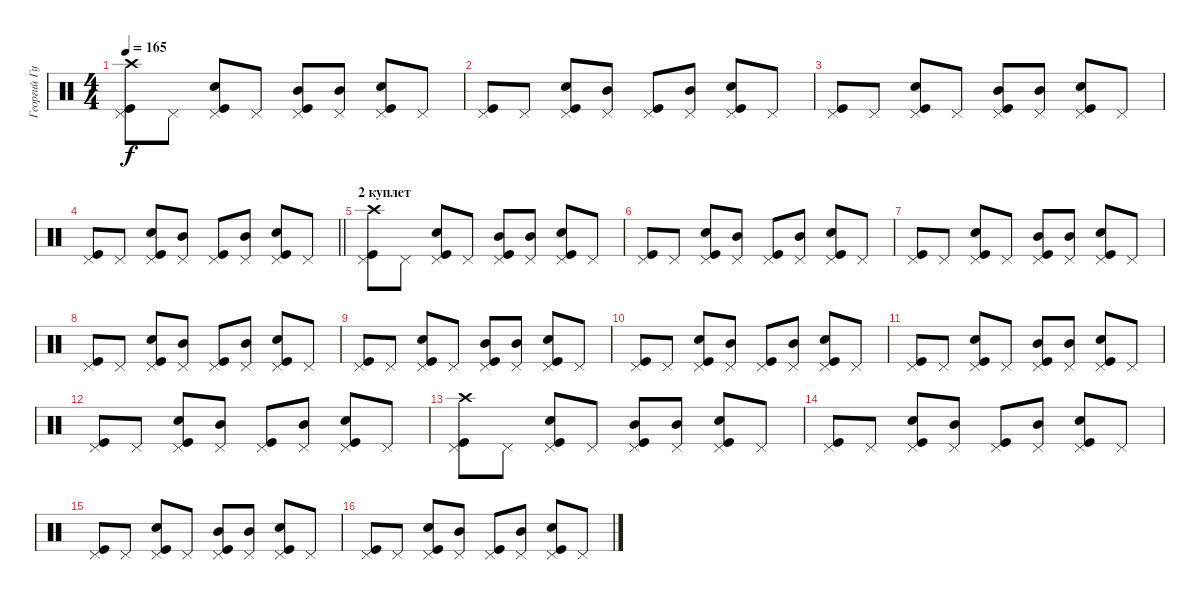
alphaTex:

\track ("Георгий Гурьянов" "Георгий Гу") {instrument percussion}
\staff {score}
\articulation defaults
\ts (4 4)
\tempo 165
\clef neutral
\ks c
("Pedal Hi-Hat (hit)" "Kick (hit)" "Crash high (hit)").8{dy f} "Pedal Hi-Hat (hit)".8 ("Pedal Hi-Hat (hit)" "Kick (hit)" "Snare (hit) 2").8 "Pedal Hi-Hat (hit)".8 ("Pedal Hi-Hat (hit)" "Kick (hit)" "Mid Tom (hit)").8 ("Pedal Hi-Hat (hit)" "Mid Tom (hit)").8 ("Pedal Hi-Hat (hit)" "Kick (hit)" "Snare (hit) 2").8 "Pedal Hi-Hat (hit)".8 |
("Pedal Hi-Hat (hit)" "Kick (hit)").8 "Pedal Hi-Hat (hit)".8 ("Pedal Hi-Hat (hit)" "Kick (hit)" "Snare (hit) 2").8 ("Pedal Hi-Hat (hit)" "Mid Tom (hit)").8 ("Pedal Hi-Hat (hit)" "Kick (hit)").8 ("Pedal Hi-Hat (hit)" "Mid Tom (hit)").8 ("Pedal Hi-Hat (hit)" "Kick (hit)" "Snare (hit) 2").8 "Pedal Hi-Hat (hit)".8 |
("Pedal Hi-Hat (hit)" "Kick (hit)").8 "Pedal Hi-Hat (hit)".8 ("Pedal Hi-Hat (hit)" "Kick (hit)" "Snare (hit) 2").8 "Pedal Hi-Hat (hit)".8 ("Pedal Hi-Hat (hit)" "Kick (hit)" "Mid Tom (hit)").8 ("Pedal Hi-Hat (hit)" "Mid Tom (hit)").8 ("Pedal Hi-Hat (hit)" "Kick (hit)" "Snare (hit) 2").8 "Pedal Hi-Hat (hit)".8 |
\barLineRight lightlight
("Pedal Hi-Hat (hit)" "Kick (hit)").8 "Pedal Hi-Hat (hit)".8 ("Pedal Hi-Hat (hit)" "Kick (hit)" "Snare (hit) 2").8 ("Pedal Hi-Hat (hit)" "Mid Tom (hit)").8 ("Pedal Hi-Hat (hit)" "Kick (hit)").8 ("Pedal Hi-Hat (hit)" "Mid Tom (hit)").8 ("Pedal Hi-Hat (hit)" "Kick (hit)" "Snare (hit) 2").8 "Pedal Hi-Hat (hit)".8 |
\section ("" "2 куплет")
("Pedal Hi-Hat (hit)" "Kick (hit)" "Crash high (hit)").8 "Pedal Hi-Hat (hit)".8 ("Pedal Hi-Hat (hit)" "Kick (hit)" "Snare (hit) 2").8 "Pedal Hi-Hat (hit)".8 ("Pedal Hi-Hat (hit)" "Kick (hit)" "Mid Tom (hit)").8 ("Pedal Hi-Hat (hit)" "Mid Tom (hit)").8 ("Pedal Hi-Hat (hit)" "Kick (hit)" "Snare (hit) 2").8 "Pedal Hi-Hat (hit)".8 |
("Pedal Hi-Hat (hit)" "Kick (hit)").8 "Pedal Hi-Hat (hit)".8 ("Pedal Hi-Hat (hit)" "Kick (hit)" "Snare (hit) 2").8 ("Pedal Hi-Hat (hit)" "Mid Tom (hit)").8 ("Pedal Hi-Hat (hit)" "Kick (hit)").8 ("Pedal Hi-Hat (hit)" "Mid Tom (hit)").8 ("Pedal Hi-Hat (hit)" "Kick (hit)" "Snare (hit) 2").8 "Pedal Hi-Hat (hit)".8 |
("Pedal Hi-Hat (hit)" "Kick (hit)").8 "Pedal Hi-Hat (hit)".8 ("Pedal Hi-Hat (hit)" "Kick (hit)" "Snare (hit) 2").8 "Pedal Hi-Hat (hit)".8 ("Pedal Hi-Hat (hit)" "Kick (hit)" "Mid Tom (hit)").8 ("Pedal Hi-Hat (hit)" "Mid Tom (hit)").8 ("Pedal Hi-Hat (hit)" "Kick (hit)" "Snare (hit) 2").8 "Pedal Hi-Hat (hit)".8 |
("Pedal Hi-Hat (hit)" "Kick (hit)").8 "Pedal Hi-Hat (hit)".8 ("Pedal Hi-Hat (hit)" "Kick (hit)" "Snare (hit) 2").8 ("Pedal Hi-Hat (hit)" "Mid Tom (hit)").8 ("Pedal Hi-Hat (hit)" "Kick (hit)").8 ("Pedal Hi-Hat (hit)" "Mid Tom (hit)").8 ("Pedal Hi-Hat (hit)" "Kick (hit)" "Snare (hit) 2").8 "Pedal Hi-Hat (hit)".8 |
("Pedal Hi-Hat (hit)" "Kick (hit)").8 "Pedal Hi-Hat (hit)".8 ("Pedal Hi-Hat (hit)" "Kick (hit)" "Snare (hit) 2").8 "Pedal Hi-Hat (hit)".8 ("Pedal Hi-Hat (hit)" "Kick (hit)" "Mid Tom (hit)").8 ("Pedal Hi-Hat (hit)" "Mid Tom (hit)").8 ("Pedal Hi-Hat (hit)" "Kick (hit)" "Snare (hit) 2").8 "Pedal Hi-Hat (hit)".8 |
("Pedal Hi-Hat (hit)" "Kick (hit)").8 "Pedal Hi-Hat (hit)".8 ("Pedal Hi-Hat (hit)" "Kick (hit)" "Snare (hit) 2").8 ("Pedal Hi-Hat (hit)" "Mid Tom (hit)").8 ("Pedal Hi-Hat (hit)" "Kick (hit)").8 ("Pedal Hi-Hat (hit)" "Mid Tom (hit)").8 ("Pedal Hi-Hat (hit)" "Kick (hit)" "Snare (hit) 2").8 "Pedal Hi-Hat (hit)".8 |
("Pedal Hi-Hat (hit)" "Kick (hit)").8 "Pedal Hi-Hat (hit)".8 ("Pedal Hi-Hat (hit)" "Kick (hit)" "Snare (hit) 2").8 "Pedal Hi-Hat (hit)".8 ("Pedal Hi-Hat (hit)" "Kick (hit)" "Mid Tom (hit)").8 ("Pedal Hi-Hat (hit)" "Mid Tom (hit)").8 ("Pedal Hi-Hat (hit)" "Kick (hit)" "Snare (hit) 2").8 "Pedal Hi-Hat (hit)".8 |
("Pedal Hi-Hat (hit)" "Kick (hit)").8 "Pedal Hi-Hat (hit)".8 ("Pedal Hi-Hat (hit)" "Kick (hit)" "Snare (hit) 2").8 ("Pedal Hi-Hat (hit)" "Mid Tom (hit)").8 ("Pedal Hi-Hat (hit)" "Kick (hit)").8 ("Pedal Hi-Hat (hit)" "Mid Tom (hit)").8 ("Pedal Hi-Hat (hit)" "Kick (hit)" "Snare (hit) 2").8 "Pedal Hi-Hat (hit)".8 |
("Pedal Hi-Hat (hit)" "Kick (hit)" "Crash high (hit)").8 "Pedal Hi-Hat (hit)".8 ("Pedal Hi-Hat (hit)" "Kick (hit)" "Snare (hit) 2").8 "Pedal Hi-Hat (hit)".8 ("Pedal Hi-Hat (hit)" "Kick (hit)" "Mid Tom (hit)").8 ("Pedal Hi-Hat (hit)" "Mid Tom (hit)").8 ("Pedal Hi-Hat (hit)" "Kick (hit)" "Snare (hit) 2").8 "Pedal Hi-Hat (hit)".8 |
("Pedal Hi-Hat (hit)" "Kick (hit)").8 "Pedal Hi-Hat (hit)".8 ("Pedal Hi-Hat (hit)" "Kick (hit)" "Snare (hit) 2").8 ("Pedal Hi-Hat (hit)" "Mid Tom (hit)").8 ("Pedal Hi-Hat (hit)" "Kick (hit)").8 ("Pedal Hi-Hat (hit)" "Mid Tom (hit)").8 ("Pedal Hi-Hat (hit)" "Kick (hit)" "Snare (hit) 2").8 "Pedal Hi-Hat (hit)".8 |
("Pedal Hi-Hat (hit)" "Kick (hit)").8 "Pedal Hi-Hat (hit)".8 ("Pedal Hi-Hat (hit)" "Kick (hit)" "Snare (hit) 2").8 "Pedal Hi-Hat (hit)".8 ("Pedal Hi-Hat (hit)" "Kick (hit)" "Mid Tom (hit)").8 ("Pedal Hi-Hat (hit)" "Mid Tom (hit)").8 ("Pedal Hi-Hat (hit)" "Kick (hit)" "Snare (hit) 2").8 "Pedal Hi-Hat (hit)".8 |
("Pedal Hi-Hat (hit)" "Kick (hit)").8 "Pedal Hi-Hat (hit)".8 ("Pedal Hi-Hat (hit)" "Kick (hit)" "Snare (hit) 2").8 ("Pedal Hi-Hat (hit)" "Mid Tom (hit)").8 ("Pedal Hi-Hat (hit)" "Kick (hit)").8 ("Pedal Hi-Hat (hit)" "Mid Tom (hit)").8 ("Pedal Hi-Hat (hit)" "Kick (hit)" "Snare (hit) 2").8 "Pedal Hi-Hat (hit)".8
